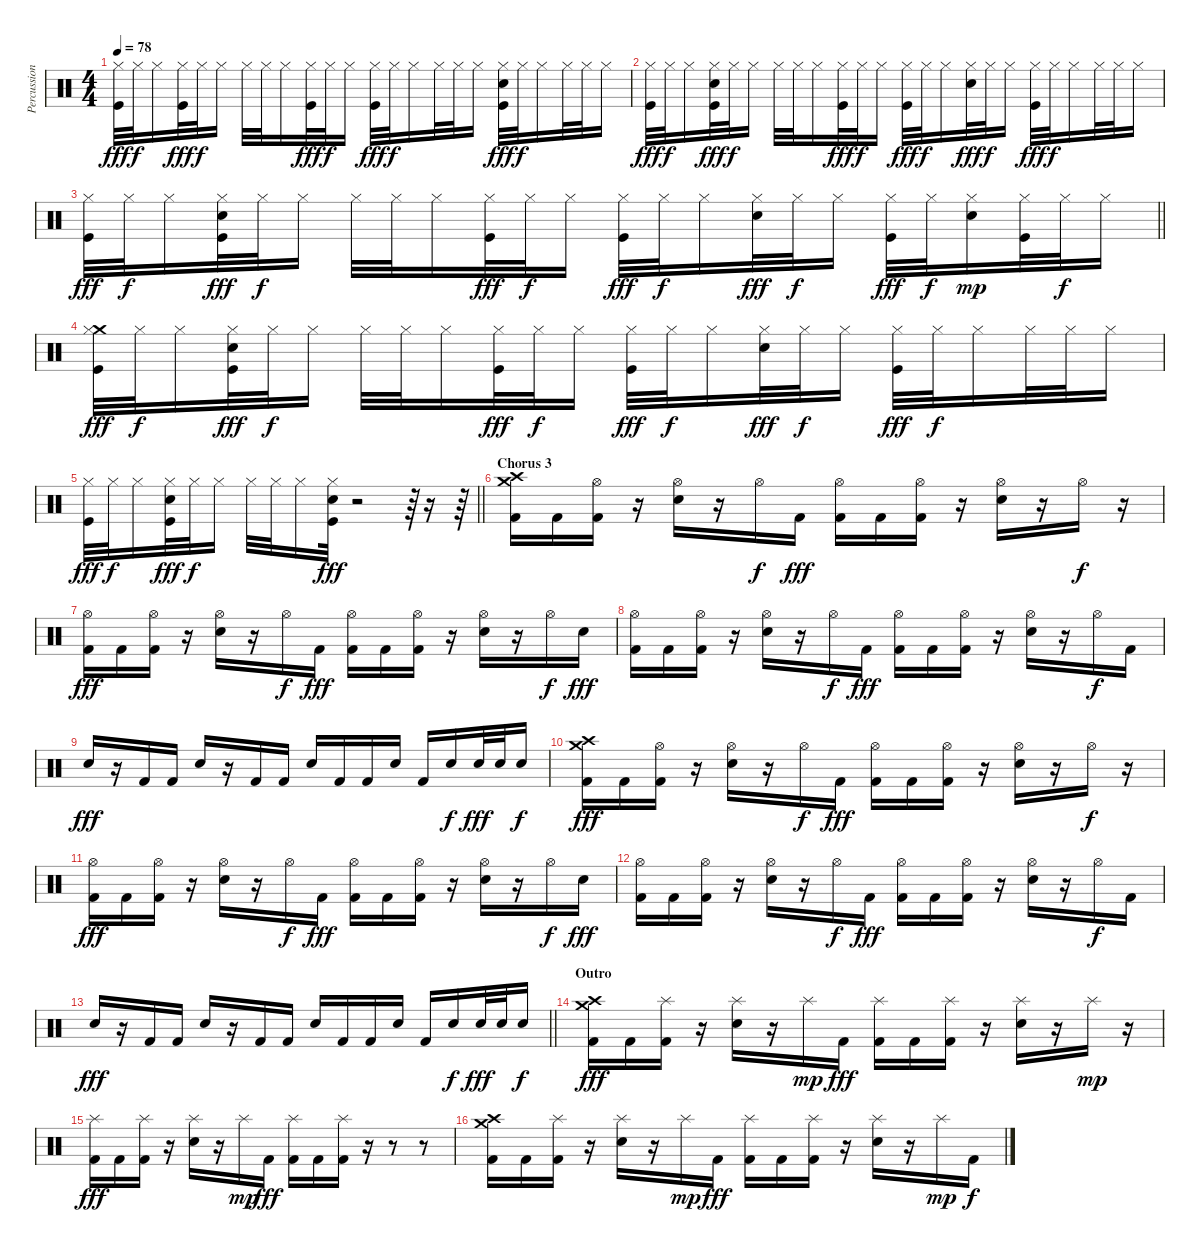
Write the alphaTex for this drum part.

\track ("Percussion" "Percussion") {instrument percussion}
\staff {score}
\articulation defaults
\ts (4 4)
\tempo 78
\clef neutral
\ks c
("Hi-Hat (closed)" "Kick (hit)").32{dy fff} "Hi-Hat (closed)".32{dy f} "Hi-Hat (closed)".16 ("Hi-Hat (closed)" "Kick (hit)").32{dy fff} "Hi-Hat (closed)".32{dy f} "Hi-Hat (closed)".16 "Hi-Hat (closed)".32 "Hi-Hat (closed)".32 "Hi-Hat (closed)".16 ("Hi-Hat (closed)" "Kick (hit)").32{dy fff} "Hi-Hat (closed)".32{dy f} "Hi-Hat (closed)".16 ("Hi-Hat (closed)" "Kick (hit)").32{dy fff} "Hi-Hat (closed)".32{dy f} "Hi-Hat (closed)".16 "Hi-Hat (closed)".32 "Hi-Hat (closed)".32 "Hi-Hat (closed)".16 ("Hi-Hat (closed)" "Electric Snare (hit)" "Kick (hit)").32{dy fff} "Hi-Hat (closed)".32{dy f} "Hi-Hat (closed)".16 "Hi-Hat (closed)".32 "Hi-Hat (closed)".32 "Hi-Hat (closed)".16 |
("Hi-Hat (closed)" "Kick (hit)").32{dy fff} "Hi-Hat (closed)".32{dy f} "Hi-Hat (closed)".16 ("Hi-Hat (closed)" "Electric Snare (hit)" "Kick (hit)").32{dy fff} "Hi-Hat (closed)".32{dy f} "Hi-Hat (closed)".16 "Hi-Hat (closed)".32 "Hi-Hat (closed)".32 "Hi-Hat (closed)".16 ("Hi-Hat (closed)" "Kick (hit)").32{dy fff} "Hi-Hat (closed)".32{dy f} "Hi-Hat (closed)".16 ("Hi-Hat (closed)" "Kick (hit)").32{dy fff} "Hi-Hat (closed)".32{dy f} "Hi-Hat (closed)".16 ("Hi-Hat (closed)" "Electric Snare (hit)").32{dy fff} "Hi-Hat (closed)".32{dy f} "Hi-Hat (closed)".16 ("Hi-Hat (closed)" "Kick (hit)").32{dy fff} "Hi-Hat (closed)".32{dy f} "Hi-Hat (closed)".16 "Hi-Hat (closed)".32 "Hi-Hat (closed)".32 "Hi-Hat (closed)".16 |
\barLineRight lightlight
("Hi-Hat (closed)" "Kick (hit)").32{dy fff} "Hi-Hat (closed)".32{dy f} "Hi-Hat (closed)".16 ("Hi-Hat (closed)" "Electric Snare (hit)" "Kick (hit)").32{dy fff} "Hi-Hat (closed)".32{dy f} "Hi-Hat (closed)".16 "Hi-Hat (closed)".32 "Hi-Hat (closed)".32 "Hi-Hat (closed)".16 ("Hi-Hat (closed)" "Kick (hit)").32{dy fff} "Hi-Hat (closed)".32{dy f} "Hi-Hat (closed)".16 ("Hi-Hat (closed)" "Kick (hit)").32{dy fff} "Hi-Hat (closed)".32{dy f} "Hi-Hat (closed)".16 ("Hi-Hat (closed)" "Electric Snare (hit)").32{dy fff} "Hi-Hat (closed)".32{dy f} "Hi-Hat (closed)".16 ("Hi-Hat (closed)" "Kick (hit)").32{dy fff} "Hi-Hat (closed)".32{dy f} ("Hi-Hat (closed)" "Electric Snare (hit)").16{dy mp} ("Hi-Hat (closed)" "Kick (hit)").32 "Hi-Hat (closed)".32{dy f} "Hi-Hat (closed)".16 |
("Crash medium (hit)" "Hi-Hat (closed)" "Kick (hit)").32{dy fff} "Hi-Hat (closed)".32{dy f} "Hi-Hat (closed)".16 ("Hi-Hat (closed)" "Electric Snare (hit)" "Kick (hit)").32{dy fff} "Hi-Hat (closed)".32{dy f} "Hi-Hat (closed)".16 "Hi-Hat (closed)".32 "Hi-Hat (closed)".32 "Hi-Hat (closed)".16 ("Hi-Hat (closed)" "Kick (hit)").32{dy fff} "Hi-Hat (closed)".32{dy f} "Hi-Hat (closed)".16 ("Hi-Hat (closed)" "Kick (hit)").32{dy fff} "Hi-Hat (closed)".32{dy f} "Hi-Hat (closed)".16 ("Hi-Hat (closed)" "Electric Snare (hit)").32{dy fff} "Hi-Hat (closed)".32{dy f} "Hi-Hat (closed)".16 ("Hi-Hat (closed)" "Kick (hit)").32{dy fff} "Hi-Hat (closed)".32{dy f} "Hi-Hat (closed)".16 "Hi-Hat (closed)".32 "Hi-Hat (closed)".32 "Hi-Hat (closed)".16 |
\barLineRight lightlight
("Hi-Hat (closed)" "Kick (hit)").32{dy fff} "Hi-Hat (closed)".32{dy f} "Hi-Hat (closed)".16 ("Hi-Hat (closed)" "Electric Snare (hit)" "Kick (hit)").32{dy fff} "Hi-Hat (closed)".32{dy f} "Hi-Hat (closed)".16 "Hi-Hat (closed)".32 "Hi-Hat (closed)".32 "Hi-Hat (closed)".16 ("Hi-Hat (closed)" "Electric Snare (hit)" "Kick (hit)").32{dy fff} r.2 r.64 r.16 r.64 |
\section ("" "Chorus 3")
("Crash high (hit)" "Crash medium (hit)" "Kick (hit) 2").16 "Kick (hit) 2".16 ("Hi-Hat (open)" "Kick (hit) 2").16 r.16 ("Hi-Hat (open)" "Electric Snare (hit)").16 r.16 "Hi-Hat (open)".16{dy f} "Kick (hit) 2".16{dy fff} ("Hi-Hat (open)" "Kick (hit) 2").16 "Kick (hit) 2".16 ("Hi-Hat (open)" "Kick (hit) 2").16 r.16 ("Hi-Hat (open)" "Electric Snare (hit)").16 r.16 "Hi-Hat (open)".16{dy f} r.16 |
("Hi-Hat (open)" "Kick (hit) 2").16{dy fff} "Kick (hit) 2".16 ("Hi-Hat (open)" "Kick (hit) 2").16 r.16 ("Hi-Hat (open)" "Electric Snare (hit)").16 r.16 "Hi-Hat (open)".16{dy f} "Kick (hit) 2".16{dy fff} ("Hi-Hat (open)" "Kick (hit) 2").16 "Kick (hit) 2".16 ("Hi-Hat (open)" "Kick (hit) 2").16 r.16 ("Hi-Hat (open)" "Electric Snare (hit)").16 r.16 "Hi-Hat (open)".16{dy f} "Electric Snare (hit)".16{dy fff} |
("Hi-Hat (open)" "Kick (hit) 2").16 "Kick (hit) 2".16 ("Hi-Hat (open)" "Kick (hit) 2").16 r.16 ("Hi-Hat (open)" "Electric Snare (hit)").16 r.16 "Hi-Hat (open)".16{dy f} "Kick (hit) 2".16{dy fff} ("Hi-Hat (open)" "Kick (hit) 2").16 "Kick (hit) 2".16 ("Hi-Hat (open)" "Kick (hit) 2").16 r.16 ("Hi-Hat (open)" "Electric Snare (hit)").16 r.16 "Hi-Hat (open)".16{dy f} "Kick (hit) 2".16 |
"Electric Snare (hit)".16{dy fff} r.16 "Kick (hit) 2".16 "Kick (hit) 2".16 "Electric Snare (hit)".16 r.16 "Kick (hit) 2".16 "Kick (hit) 2".16 "Electric Snare (hit)".16 "Kick (hit) 2".16 "Kick (hit) 2".16 "Electric Snare (hit)".16 "Kick (hit) 2".16 "Electric Snare (hit)".16{dy f} "Electric Snare (hit)".32{dy fff} "Electric Snare (hit)".32 "Electric Snare (hit)".16{dy f} |
("Crash high (hit)" "Crash medium (hit)" "Kick (hit) 2").16{dy fff} "Kick (hit) 2".16 ("Hi-Hat (open)" "Kick (hit) 2").16 r.16 ("Hi-Hat (open)" "Electric Snare (hit)").16 r.16 "Hi-Hat (open)".16{dy f} "Kick (hit) 2".16{dy fff} ("Hi-Hat (open)" "Kick (hit) 2").16 "Kick (hit) 2".16 ("Hi-Hat (open)" "Kick (hit) 2").16 r.16 ("Hi-Hat (open)" "Electric Snare (hit)").16 r.16 "Hi-Hat (open)".16{dy f} r.16 |
("Hi-Hat (open)" "Kick (hit) 2").16{dy fff} "Kick (hit) 2".16 ("Hi-Hat (open)" "Kick (hit) 2").16 r.16 ("Hi-Hat (open)" "Electric Snare (hit)").16 r.16 "Hi-Hat (open)".16{dy f} "Kick (hit) 2".16{dy fff} ("Hi-Hat (open)" "Kick (hit) 2").16 "Kick (hit) 2".16 ("Hi-Hat (open)" "Kick (hit) 2").16 r.16 ("Hi-Hat (open)" "Electric Snare (hit)").16 r.16 "Hi-Hat (open)".16{dy f} "Electric Snare (hit)".16{dy fff} |
("Hi-Hat (open)" "Kick (hit) 2").16 "Kick (hit) 2".16 ("Hi-Hat (open)" "Kick (hit) 2").16 r.16 ("Hi-Hat (open)" "Electric Snare (hit)").16 r.16 "Hi-Hat (open)".16{dy f} "Kick (hit) 2".16{dy fff} ("Hi-Hat (open)" "Kick (hit) 2").16 "Kick (hit) 2".16 ("Hi-Hat (open)" "Kick (hit) 2").16 r.16 ("Hi-Hat (open)" "Electric Snare (hit)").16 r.16 "Hi-Hat (open)".16{dy f} "Kick (hit) 2".16 |
\barLineRight lightlight "Electric Snare (hit)".16{dy fff}
r.16 "Kick (hit) 2".16 "Kick (hit) 2".16 "Electric Snare (hit)".16 r.16 "Kick (hit) 2".16 "Kick (hit) 2".16 "Electric Snare (hit)".16 "Kick (hit) 2".16 "Kick (hit) 2".16 "Electric Snare (hit)".16 "Kick (hit) 2".16 "Electric Snare (hit)".16{dy f} "Electric Snare (hit)".32{dy fff} "Electric Snare (hit)".32 "Electric Snare (hit)".16{dy f} |
\section ("" "Outro")
("Crash high (hit)" "Crash medium (hit)" "Kick (hit) 2").16{dy fff} "Kick (hit) 2".16 ("Splash (hit)" "Kick (hit) 2").16 r.16 ("Splash (hit)" "Electric Snare (hit)").16 r.16 "Splash (hit)".16{dy mp} "Kick (hit) 2".16{dy fff} ("Splash (hit)" "Kick (hit) 2").16 "Kick (hit) 2".16 ("Splash (hit)" "Kick (hit) 2").16 r.16 ("Splash (hit)" "Electric Snare (hit)").16 r.16 "Splash (hit)".16{dy mp} r.16 |
("Splash (hit)" "Kick (hit) 2").16{dy fff} "Kick (hit) 2".16 ("Splash (hit)" "Kick (hit) 2").16 r.16 ("Splash (hit)" "Electric Snare (hit)").16 r.16 "Splash (hit)".16{dy mp} "Kick (hit) 2".16{dy fff} ("Splash (hit)" "Kick (hit) 2").16 "Kick (hit) 2".16 ("Splash (hit)" "Kick (hit) 2").16 r.16 r.8 r.8 |
("Crash high (hit)" "Crash medium (hit)" "Kick (hit) 2").16 "Kick (hit) 2".16 ("Splash (hit)" "Kick (hit) 2").16 r.16 ("Splash (hit)" "Electric Snare (hit)").16 r.16 "Splash (hit)".16{dy mp} "Kick (hit) 2".16{dy fff} ("Splash (hit)" "Kick (hit) 2").16 "Kick (hit) 2".16 ("Splash (hit)" "Kick (hit) 2").16 r.16 ("Splash (hit)" "Electric Snare (hit)").16 r.16 "Splash (hit)".16{dy mp} "Kick (hit) 2".16{dy f}
